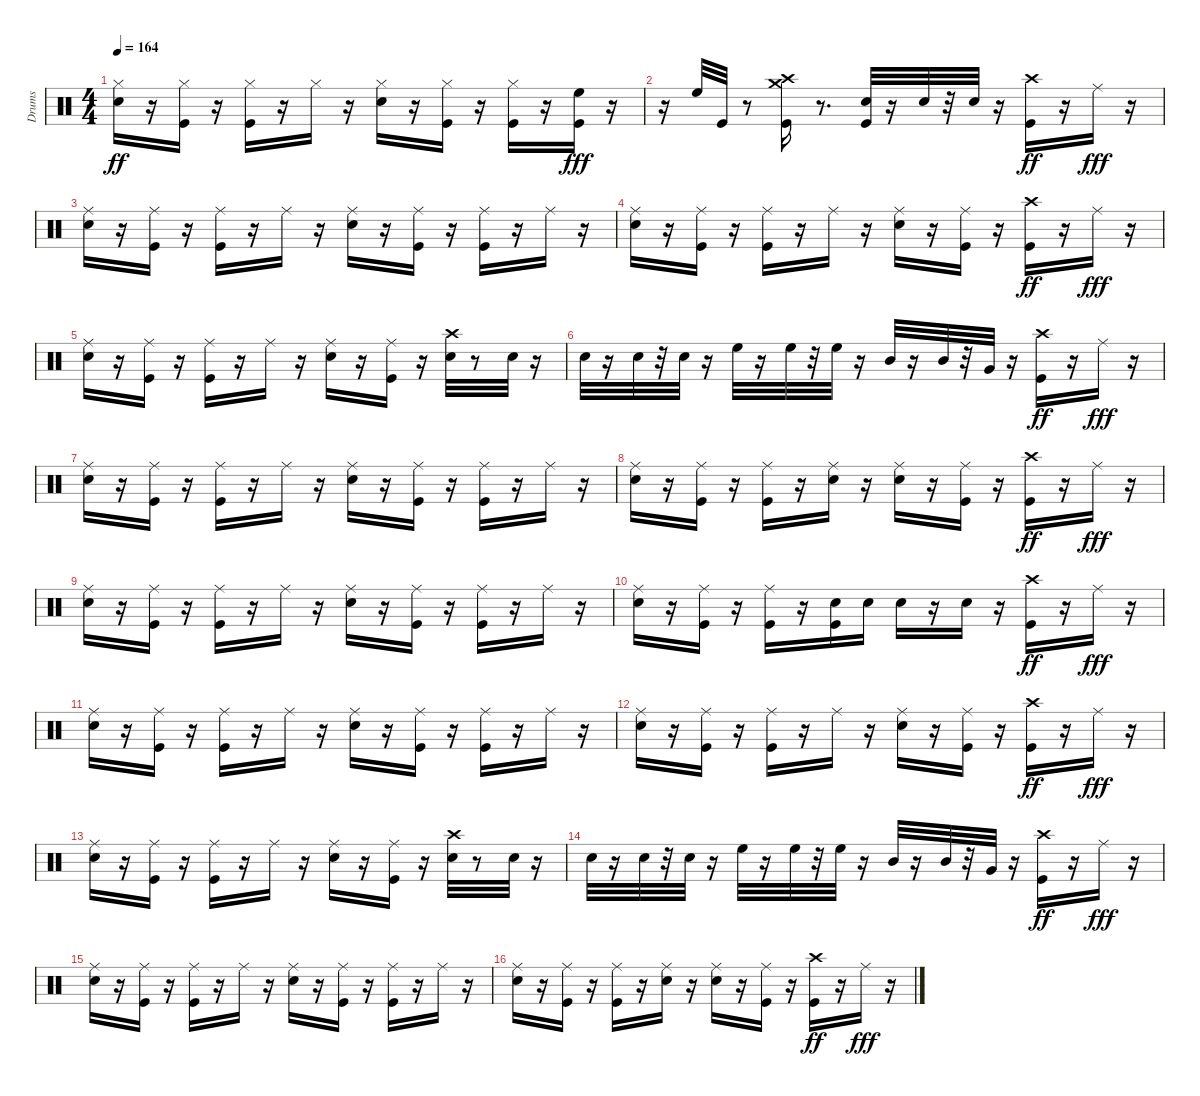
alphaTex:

\track ("Drums" "Drums") {instrument percussion}
\staff {score}
\articulation defaults
\ts (4 4)
\tempo 164
\clef neutral
\ks c
("Electric Snare (hit)" "Hi-Hat (closed)").16{dy ff} r.16 ("Kick (hit)" "Hi-Hat (closed)").16 r.16 ("Kick (hit)" "Hi-Hat (closed)").16 r.16 "Hi-Hat (closed)".16 r.16 ("Electric Snare (hit)" "Hi-Hat (closed)").16 r.16 ("Kick (hit)" "Hi-Hat (closed)").16 r.16 ("Kick (hit)" "Hi-Hat (closed)").16 r.16 ("High Floor Tom (hit)" "Kick (hit)").16{dy fff} r.16 |
r.16 "High Floor Tom (hit)".32 "Kick (hit)".32 r.8 ("Crash high (hit)" "Kick (hit)" "Crash medium (hit)").16 r.8{d} ("Electric Snare (hit)" "Kick (hit)").32 r.16 "Electric Snare (hit)".32 r.32 "Electric Snare (hit)".32 r.16 ("Kick (hit)" "Crash high (hit)").16{dy ff} r.16 "Ride (middle)".16{dy fff} r.16 |
("Electric Snare (hit)" "Ride (middle)").16 r.16 ("Kick (hit)" "Ride (middle)").16 r.16 ("Kick (hit)" "Ride (middle)").16 r.16 "Ride (middle)".16 r.16 ("Electric Snare (hit)" "Ride (middle)").16 r.16 ("Kick (hit)" "Ride (middle)").16 r.16 ("Kick (hit)" "Ride (middle)").16 r.16 "Ride (middle)".16 r.16 |
("Electric Snare (hit)" "Ride (middle)").16 r.16 ("Kick (hit)" "Ride (middle)").16 r.16 ("Kick (hit)" "Ride (middle)").16 r.16 "Ride (middle)".16 r.16 ("Ride (middle)" "Electric Snare (hit)").16 r.16 ("Kick (hit)" "Ride (middle)").16 r.16 ("Kick (hit)" "Crash high (hit)").16{dy ff} r.16 "Ride (middle)".16{dy fff} r.16 |
("Electric Snare (hit)" "Ride (middle)").16 r.16 ("Kick (hit)" "Ride (middle)").16 r.16 ("Kick (hit)" "Ride (middle)").16 r.16 "Ride (middle)".16 r.16 ("Electric Snare (hit)" "Ride (middle)").16 r.16 ("Kick (hit)" "Ride (middle)").16 r.16 ("Electric Snare (hit)" "Crash high (hit)").32 r.8 "Electric Snare (hit)".32 r.16 |
"Electric Snare (hit)".32 r.16 "Electric Snare (hit)".32 r.32 "Electric Snare (hit)".32 r.16 "High Floor Tom (hit)".32 r.16 "High Floor Tom (hit)".32 r.32 "High Floor Tom (hit)".32 r.16 "Mid Tom (hit)".32 r.16 "Mid Tom (hit)".32 r.32 "Very Low Tom (hit)".32 r.16 ("Kick (hit)" "Crash high (hit)").16{dy ff} r.16 "Ride (middle)".16{dy fff} r.16 |
("Electric Snare (hit)" "Ride (middle)").16 r.16 ("Kick (hit)" "Ride (middle)").16 r.16 ("Kick (hit)" "Ride (middle)").16 r.16 "Ride (middle)".16 r.16 ("Electric Snare (hit)" "Ride (middle)").16 r.16 ("Kick (hit)" "Ride (middle)").16 r.16 ("Kick (hit)" "Ride (middle)").16 r.16 "Ride (middle)".16 r.16 |
("Electric Snare (hit)" "Ride (middle)").16 r.16 ("Kick (hit)" "Ride (middle)").16 r.16 ("Kick (hit)" "Ride (middle)").16 r.16 ("Ride (middle)" "Electric Snare (hit)").16 r.16 ("Ride (middle)" "Electric Snare (hit)").16 r.16 ("Kick (hit)" "Ride (middle)").16 r.16 ("Kick (hit)" "Crash high (hit)").16{dy ff} r.16 "Ride (middle)".16{dy fff} r.16 |
("Electric Snare (hit)" "Ride (middle)").16 r.16 ("Kick (hit)" "Ride (middle)").16 r.16 ("Kick (hit)" "Ride (middle)").16 r.16 "Ride (middle)".16 r.16 ("Electric Snare (hit)" "Ride (middle)").16 r.16 ("Kick (hit)" "Ride (middle)").16 r.16 ("Kick (hit)" "Ride (middle)").16 r.16 "Ride (middle)".16 r.16 |
("Electric Snare (hit)" "Ride (middle)").16 r.16 ("Kick (hit)" "Ride (middle)").16 r.16 ("Kick (hit)" "Ride (middle)").16 r.16 ("Electric Snare (hit)" "Kick (hit)").16 "Electric Snare (hit)".16 "Electric Snare (hit)".16 r.16 "Electric Snare (hit)".16 r.16 ("Kick (hit)" "Crash high (hit)").16{dy ff} r.16 "Ride (middle)".16{dy fff} r.16 |
("Electric Snare (hit)" "Ride (middle)").16 r.16 ("Kick (hit)" "Ride (middle)").16 r.16 ("Kick (hit)" "Ride (middle)").16 r.16 "Ride (middle)".16 r.16 ("Electric Snare (hit)" "Ride (middle)").16 r.16 ("Kick (hit)" "Ride (middle)").16 r.16 ("Kick (hit)" "Ride (middle)").16 r.16 "Ride (middle)".16 r.16 |
("Electric Snare (hit)" "Ride (middle)").16 r.16 ("Kick (hit)" "Ride (middle)").16 r.16 ("Kick (hit)" "Ride (middle)").16 r.16 "Ride (middle)".16 r.16 ("Ride (middle)" "Electric Snare (hit)").16 r.16 ("Kick (hit)" "Ride (middle)").16 r.16 ("Kick (hit)" "Crash high (hit)").16{dy ff} r.16 "Ride (middle)".16{dy fff} r.16 |
("Electric Snare (hit)" "Ride (middle)").16 r.16 ("Kick (hit)" "Ride (middle)").16 r.16 ("Kick (hit)" "Ride (middle)").16 r.16 "Ride (middle)".16 r.16 ("Electric Snare (hit)" "Ride (middle)").16 r.16 ("Kick (hit)" "Ride (middle)").16 r.16 ("Electric Snare (hit)" "Crash high (hit)").32 r.8 "Electric Snare (hit)".32 r.16 |
"Electric Snare (hit)".32 r.16 "Electric Snare (hit)".32 r.32 "Electric Snare (hit)".32 r.16 "High Floor Tom (hit)".32 r.16 "High Floor Tom (hit)".32 r.32 "High Floor Tom (hit)".32 r.16 "Mid Tom (hit)".32 r.16 "Mid Tom (hit)".32 r.32 "Very Low Tom (hit)".32 r.16 ("Kick (hit)" "Crash high (hit)").16{dy ff} r.16 "Ride (middle)".16{dy fff} r.16 |
("Electric Snare (hit)" "Ride (middle)").16 r.16 ("Kick (hit)" "Ride (middle)").16 r.16 ("Kick (hit)" "Ride (middle)").16 r.16 "Ride (middle)".16 r.16 ("Electric Snare (hit)" "Ride (middle)").16 r.16 ("Kick (hit)" "Ride (middle)").16 r.16 ("Kick (hit)" "Ride (middle)").16 r.16 "Ride (middle)".16 r.16 |
("Electric Snare (hit)" "Ride (middle)").16 r.16 ("Kick (hit)" "Ride (middle)").16 r.16 ("Kick (hit)" "Ride (middle)").16 r.16 ("Ride (middle)" "Electric Snare (hit)").16 r.16 ("Ride (middle)" "Electric Snare (hit)").16 r.16 ("Kick (hit)" "Ride (middle)").16 r.16 ("Kick (hit)" "Crash high (hit)").16{dy ff} r.16 "Ride (middle)".16{dy fff} r.16
